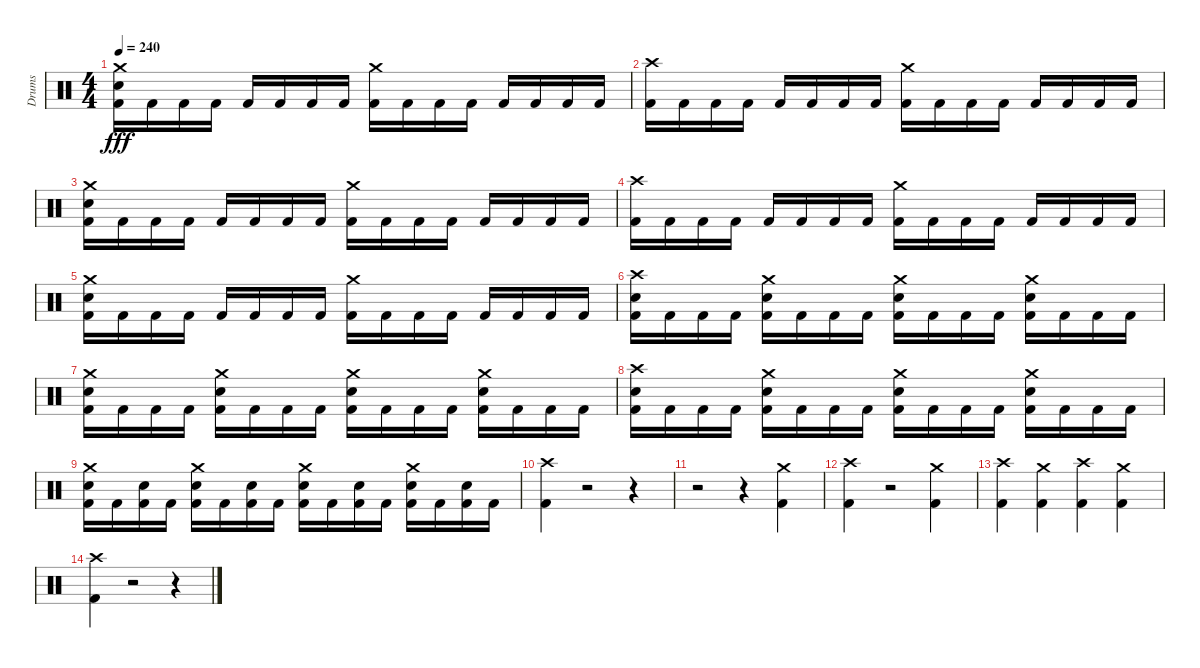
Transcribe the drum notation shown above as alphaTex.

\track ("Drums" "Drums") {instrument percussion}
\staff {score}
\articulation defaults
\ts (4 4)
\tempo 240
\clef neutral
\ks c
("Crash medium (hit)" "Electric Snare (hit)" "Kick (hit) 2").16{dy fff} "Kick (hit) 2".16 "Kick (hit) 2".16 "Kick (hit) 2".16 "Kick (hit) 2".16 "Kick (hit) 2".16 "Kick (hit) 2".16 "Kick (hit) 2".16 ("Crash medium (hit)" "Kick (hit) 2").16 "Kick (hit) 2".16 "Kick (hit) 2".16 "Kick (hit) 2".16 "Kick (hit) 2".16 "Kick (hit) 2".16 "Kick (hit) 2".16 "Kick (hit) 2".16 |
("Crash high (hit)" "Kick (hit) 2").16 "Kick (hit) 2".16 "Kick (hit) 2".16 "Kick (hit) 2".16 "Kick (hit) 2".16 "Kick (hit) 2".16 "Kick (hit) 2".16 "Kick (hit) 2".16 ("Crash medium (hit)" "Kick (hit) 2").16 "Kick (hit) 2".16 "Kick (hit) 2".16 "Kick (hit) 2".16 "Kick (hit) 2".16 "Kick (hit) 2".16 "Kick (hit) 2".16 "Kick (hit) 2".16 |
("Crash medium (hit)" "Electric Snare (hit)" "Kick (hit) 2").16 "Kick (hit) 2".16 "Kick (hit) 2".16 "Kick (hit) 2".16 "Kick (hit) 2".16 "Kick (hit) 2".16 "Kick (hit) 2".16 "Kick (hit) 2".16 ("Crash medium (hit)" "Kick (hit) 2").16 "Kick (hit) 2".16 "Kick (hit) 2".16 "Kick (hit) 2".16 "Kick (hit) 2".16 "Kick (hit) 2".16 "Kick (hit) 2".16 "Kick (hit) 2".16 |
("Crash high (hit)" "Kick (hit) 2").16 "Kick (hit) 2".16 "Kick (hit) 2".16 "Kick (hit) 2".16 "Kick (hit) 2".16 "Kick (hit) 2".16 "Kick (hit) 2".16 "Kick (hit) 2".16 ("Crash medium (hit)" "Kick (hit) 2").16 "Kick (hit) 2".16 "Kick (hit) 2".16 "Kick (hit) 2".16 "Kick (hit) 2".16 "Kick (hit) 2".16 "Kick (hit) 2".16 "Kick (hit) 2".16 |
("Crash medium (hit)" "Electric Snare (hit)" "Kick (hit) 2").16 "Kick (hit) 2".16 "Kick (hit) 2".16 "Kick (hit) 2".16 "Kick (hit) 2".16 "Kick (hit) 2".16 "Kick (hit) 2".16 "Kick (hit) 2".16 ("Crash medium (hit)" "Kick (hit) 2").16 "Kick (hit) 2".16 "Kick (hit) 2".16 "Kick (hit) 2".16 "Kick (hit) 2".16 "Kick (hit) 2".16 "Kick (hit) 2".16 "Kick (hit) 2".16 |
("Crash high (hit)" "Electric Snare (hit)" "Kick (hit) 2").16 "Kick (hit) 2".16 "Kick (hit) 2".16 "Kick (hit) 2".16 ("Crash medium (hit)" "Electric Snare (hit)" "Kick (hit) 2").16 "Kick (hit) 2".16 "Kick (hit) 2".16 "Kick (hit) 2".16 ("Crash medium (hit)" "Electric Snare (hit)" "Kick (hit) 2").16 "Kick (hit) 2".16 "Kick (hit) 2".16 "Kick (hit) 2".16 ("Crash medium (hit)" "Electric Snare (hit)" "Kick (hit) 2").16 "Kick (hit) 2".16 "Kick (hit) 2".16 "Kick (hit) 2".16 |
("Crash medium (hit)" "Electric Snare (hit)" "Kick (hit) 2").16 "Kick (hit) 2".16 "Kick (hit) 2".16 "Kick (hit) 2".16 ("Crash medium (hit)" "Electric Snare (hit)" "Kick (hit) 2").16 "Kick (hit) 2".16 "Kick (hit) 2".16 "Kick (hit) 2".16 ("Crash medium (hit)" "Electric Snare (hit)" "Kick (hit) 2").16 "Kick (hit) 2".16 "Kick (hit) 2".16 "Kick (hit) 2".16 ("Crash medium (hit)" "Electric Snare (hit)" "Kick (hit) 2").16 "Kick (hit) 2".16 "Kick (hit) 2".16 "Kick (hit) 2".16 |
("Crash high (hit)" "Electric Snare (hit)" "Kick (hit) 2").16 "Kick (hit) 2".16 "Kick (hit) 2".16 "Kick (hit) 2".16 ("Crash medium (hit)" "Electric Snare (hit)" "Kick (hit) 2").16 "Kick (hit) 2".16 "Kick (hit) 2".16 "Kick (hit) 2".16 ("Crash medium (hit)" "Electric Snare (hit)" "Kick (hit) 2").16 "Kick (hit) 2".16 "Kick (hit) 2".16 "Kick (hit) 2".16 ("Crash medium (hit)" "Electric Snare (hit)" "Kick (hit) 2").16 "Kick (hit) 2".16 "Kick (hit) 2".16 "Kick (hit) 2".16 |
("Crash medium (hit)" "Electric Snare (hit)" "Kick (hit) 2").16 "Kick (hit) 2".16 ("Electric Snare (hit)" "Kick (hit) 2").16 "Kick (hit) 2".16 ("Crash medium (hit)" "Electric Snare (hit)" "Kick (hit) 2").16 "Kick (hit) 2".16 ("Electric Snare (hit)" "Kick (hit) 2").16 "Kick (hit) 2".16 ("Crash medium (hit)" "Electric Snare (hit)" "Kick (hit) 2").16 "Kick (hit) 2".16 ("Electric Snare (hit)" "Kick (hit) 2").16 "Kick (hit) 2".16 ("Crash medium (hit)" "Electric Snare (hit)" "Kick (hit) 2").16 "Kick (hit) 2".16 ("Electric Snare (hit)" "Kick (hit) 2").16 "Kick (hit) 2".16 |
("Crash high (hit)" "Kick (hit) 2").4 r.2 r.4 |
r.2 r.4 ("Crash medium (hit)" "Kick (hit) 2").4 |
("Crash high (hit)" "Kick (hit) 2").4 r.2 ("Crash medium (hit)" "Kick (hit) 2").4 |
("Crash high (hit)" "Kick (hit) 2").4 ("Crash medium (hit)" "Kick (hit) 2").4 ("Crash high (hit)" "Kick (hit) 2").4 ("Crash medium (hit)" "Kick (hit) 2").4 |
("Crash high (hit)" "Kick (hit) 2").4 r.2 r.4
